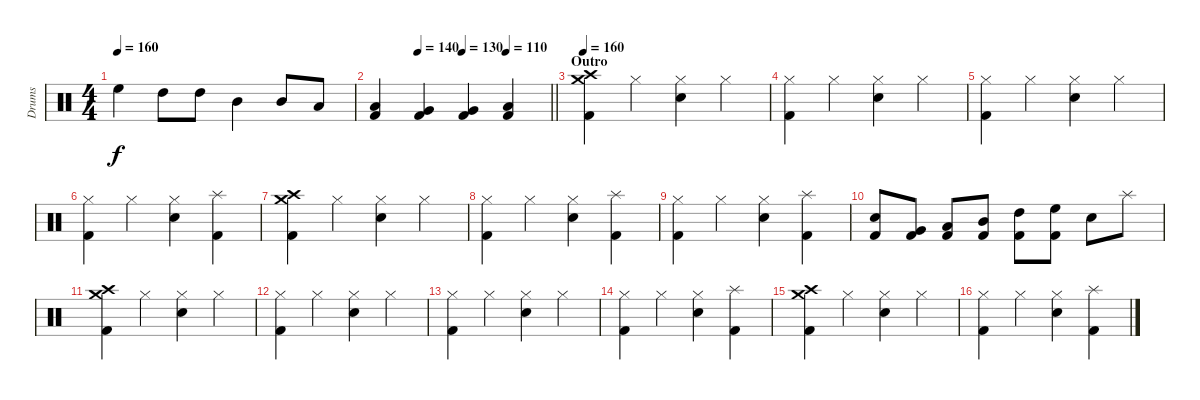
\track ("Drums" "Drums") {instrument percussion}
\staff {score}
\articulation defaults
\ts (4 4)
\tempo 160
\clef neutral
\ks c "High Floor Tom (hit)".4{dy f} "High Tom (hit)".8 "High Tom (hit)".8 "Mid Tom (hit)".4 "Mid Tom (hit)".8 "Low Tom (hit)".8
|
\tempo (140 0.25)
\tempo (130 0.5)
\tempo (110 0.75)
\barLineRight lightlight
("Kick (hit) 2" "Low Tom (hit)").4 ("Kick (hit) 2" "Very Low Tom (hit)").4 ("Kick (hit) 2" "Very Low Tom (hit)").4 ("Kick (hit) 2" "Low Floor Tom (hit)").4 |
\section ("" "Outro")
\tempo 160
("Kick (hit) 2" "Crash high (hit)" "Crash medium (hit)").4 "Hi-Hat (closed)".4 ("Hi-Hat (closed)" "Electric Snare (hit)").4 "Hi-Hat (closed)".4 |
("Kick (hit) 2" "Hi-Hat (closed)").4 "Hi-Hat (closed)".4 ("Hi-Hat (closed)" "Electric Snare (hit)").4 "Hi-Hat (closed)".4 |
("Kick (hit) 2" "Hi-Hat (closed)").4 "Hi-Hat (closed)".4 ("Hi-Hat (closed)" "Electric Snare (hit)").4 "Hi-Hat (closed)".4 |
("Kick (hit) 2" "Hi-Hat (closed)").4 "Hi-Hat (closed)".4 ("Hi-Hat (closed)" "Electric Snare (hit)").4 ("Kick (hit) 2" "Splash (hit)").4 |
("Kick (hit) 2" "Crash high (hit)" "Crash medium (hit)").4 "Hi-Hat (closed)".4 ("Hi-Hat (closed)" "Electric Snare (hit)").4 "Hi-Hat (closed)".4 |
("Kick (hit) 2" "Hi-Hat (closed)").4 "Hi-Hat (closed)".4 ("Hi-Hat (closed)" "Electric Snare (hit)").4 ("Kick (hit) 2" "Splash (hit)").4 |
("Kick (hit) 2" "Hi-Hat (closed)").4 "Hi-Hat (closed)".4 ("Hi-Hat (closed)" "Electric Snare (hit)").4 ("Kick (hit) 2" "Splash (hit)").4 |
("Kick (hit) 2" "Electric Snare (hit)").8 ("Kick (hit) 2" "Very Low Tom (hit)").8 ("Kick (hit) 2" "Low Tom (hit)").8 ("Kick (hit) 2" "Mid Tom (hit)").8 ("Kick (hit) 2" "High Tom (hit)").8 ("Kick (hit) 2" "High Floor Tom (hit)").8 "Electric Snare (hit)".8 "Splash (hit)".8 |
("Kick (hit) 2" "Crash high (hit)" "Crash medium (hit)").4 "Hi-Hat (closed)".4 ("Hi-Hat (closed)" "Electric Snare (hit)").4 "Hi-Hat (closed)".4 |
("Kick (hit) 2" "Hi-Hat (closed)").4 "Hi-Hat (closed)".4 ("Hi-Hat (closed)" "Electric Snare (hit)").4 "Hi-Hat (closed)".4 |
("Kick (hit) 2" "Hi-Hat (closed)").4 "Hi-Hat (closed)".4 ("Hi-Hat (closed)" "Electric Snare (hit)").4 "Hi-Hat (closed)".4 |
("Kick (hit) 2" "Hi-Hat (closed)").4 "Hi-Hat (closed)".4 ("Hi-Hat (closed)" "Electric Snare (hit)").4 ("Kick (hit) 2" "Splash (hit)").4 |
("Kick (hit) 2" "Crash high (hit)" "Crash medium (hit)").4 "Hi-Hat (closed)".4 ("Hi-Hat (closed)" "Electric Snare (hit)").4 "Hi-Hat (closed)".4 |
("Kick (hit) 2" "Hi-Hat (closed)").4 "Hi-Hat (closed)".4 ("Hi-Hat (closed)" "Electric Snare (hit)").4 ("Kick (hit) 2" "Splash (hit)").4
